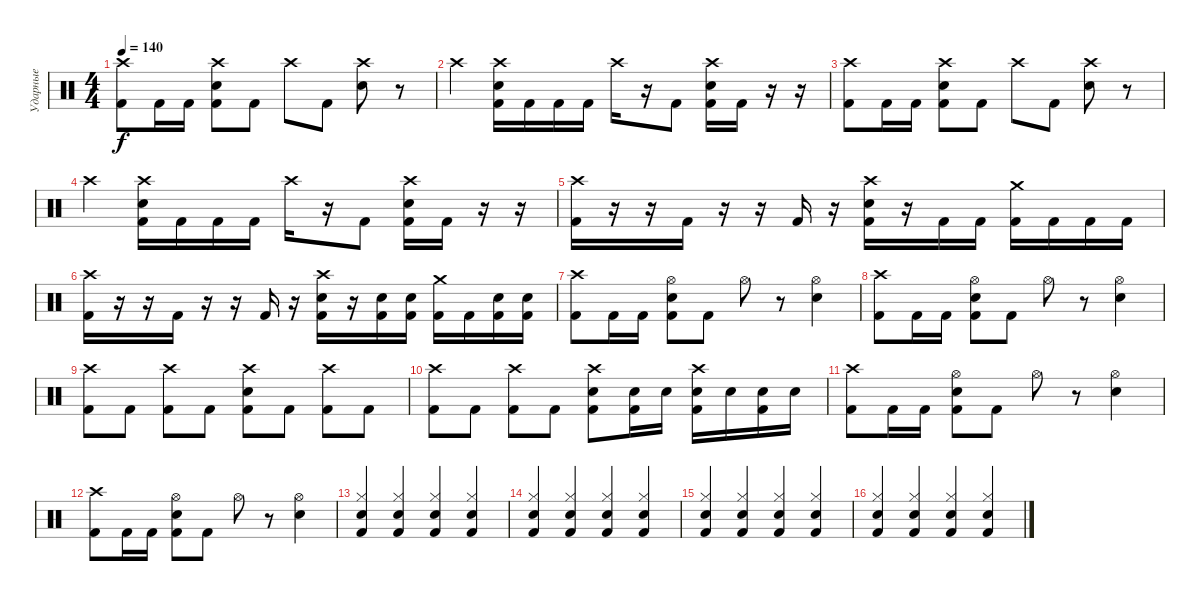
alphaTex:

\track ("Ударные" "Ударные") {instrument percussion}
\staff {score}
\articulation defaults
\ts (4 4)
\tempo 140
\clef neutral
\ks c
("Crash high (hit)" "Kick (hit) 2").8{dy f} "Kick (hit) 2".16 "Kick (hit) 2".16 ("Crash high (hit)" "Electric Snare (hit)" "Kick (hit) 2").8 "Kick (hit) 2".8 "Crash high (hit)".8 "Kick (hit) 2".8 ("Crash high (hit)" "Electric Snare (hit)").8 r.8 |
"Crash high (hit)".4 ("Crash high (hit)" "Electric Snare (hit)" "Kick (hit) 2").16 "Kick (hit) 2".16 "Kick (hit) 2".16 "Kick (hit) 2".16 "Crash high (hit)".16 r.16 "Kick (hit) 2".8 ("Crash high (hit)" "Electric Snare (hit)" "Kick (hit) 2").16 "Kick (hit) 2".16 r.16 r.16 |
("Crash high (hit)" "Kick (hit) 2").8 "Kick (hit) 2".16 "Kick (hit) 2".16 ("Crash high (hit)" "Electric Snare (hit)" "Kick (hit) 2").8 "Kick (hit) 2".8 "Crash high (hit)".8 "Kick (hit) 2".8 ("Crash high (hit)" "Electric Snare (hit)").8 r.8 |
"Crash high (hit)".4 ("Crash high (hit)" "Electric Snare (hit)" "Kick (hit) 2").16 "Kick (hit) 2".16 "Kick (hit) 2".16 "Kick (hit) 2".16 "Crash high (hit)".16 r.16 "Kick (hit) 2".8 ("Crash high (hit)" "Electric Snare (hit)" "Kick (hit) 2").16 "Kick (hit) 2".16 r.16 r.16 |
("Crash high (hit)" "Kick (hit) 2").16 r.16 r.16 "Kick (hit) 2".16 r.16 r.16 "Kick (hit) 2".16 r.16 ("Crash high (hit)" "Electric Snare (hit)" "Kick (hit) 2").16 r.16 "Kick (hit) 2".16 "Kick (hit) 2".16 ("Crash medium (hit)" "Kick (hit) 2").16 "Kick (hit) 2".16 "Kick (hit) 2".16 "Kick (hit) 2".16 |
("Crash high (hit)" "Kick (hit) 2").16 r.16 r.16 "Kick (hit) 2".16 r.16 r.16 "Kick (hit) 2".16 r.16 ("Crash high (hit)" "Electric Snare (hit)" "Kick (hit) 2").16 r.16 ("Electric Snare (hit)" "Kick (hit) 2").16 ("Electric Snare (hit)" "Kick (hit) 2").16 ("Crash medium (hit)" "Kick (hit) 2").16 "Kick (hit) 2".16 ("Electric Snare (hit)" "Kick (hit) 2").16 ("Electric Snare (hit)" "Kick (hit) 2").16 |
("Crash high (hit)" "Kick (hit) 2").8 "Kick (hit) 2".16 "Kick (hit) 2".16 ("Hi-Hat (open)" "Electric Snare (hit)" "Kick (hit) 2").8 "Kick (hit) 2".8 "Hi-Hat (open)".8 r.8 ("Hi-Hat (open)" "Electric Snare (hit)").4 |
("Crash high (hit)" "Kick (hit) 2").8 "Kick (hit) 2".16 "Kick (hit) 2".16 ("Hi-Hat (open)" "Electric Snare (hit)" "Kick (hit) 2").8 "Kick (hit) 2".8 "Hi-Hat (open)".8 r.8 ("Hi-Hat (open)" "Electric Snare (hit)").4 |
("Crash high (hit)" "Kick (hit) 2").8 "Kick (hit) 2".8 ("Crash high (hit)" "Kick (hit) 2").8 "Kick (hit) 2".8 ("Crash high (hit)" "Electric Snare (hit)" "Kick (hit) 2").8 "Kick (hit) 2".8 ("Crash high (hit)" "Kick (hit) 2").8 "Kick (hit) 2".8 |
("Crash high (hit)" "Kick (hit) 2").8 "Kick (hit) 2".8 ("Crash high (hit)" "Kick (hit) 2").8 "Kick (hit) 2".8 ("Crash high (hit)" "Electric Snare (hit)" "Kick (hit) 2").8 ("Electric Snare (hit)" "Kick (hit) 2").16 "Electric Snare (hit)".16 ("Crash high (hit)" "Electric Snare (hit)" "Kick (hit) 2").16 "Electric Snare (hit)".16 ("Electric Snare (hit)" "Kick (hit) 2").16 "Electric Snare (hit)".16 |
("Crash high (hit)" "Kick (hit) 2").8 "Kick (hit) 2".16 "Kick (hit) 2".16 ("Hi-Hat (open)" "Electric Snare (hit)" "Kick (hit) 2").8 "Kick (hit) 2".8 "Hi-Hat (open)".8 r.8 ("Hi-Hat (open)" "Electric Snare (hit)").4 |
("Crash high (hit)" "Kick (hit) 2").8 "Kick (hit) 2".16 "Kick (hit) 2".16 ("Hi-Hat (open)" "Electric Snare (hit)" "Kick (hit) 2").8 "Kick (hit) 2".8 "Hi-Hat (open)".8 r.8 ("Hi-Hat (open)" "Electric Snare (hit)").4 |
("Hi-Hat (closed)" "Hand Clap (hit)" "Kick (hit) 2").4 ("Hi-Hat (closed)" "Hand Clap (hit)" "Kick (hit) 2").4 ("Hi-Hat (closed)" "Hand Clap (hit)" "Kick (hit) 2").4 ("Hi-Hat (closed)" "Hand Clap (hit)" "Kick (hit) 2").4 |
("Hi-Hat (closed)" "Hand Clap (hit)" "Kick (hit) 2").4 ("Hi-Hat (closed)" "Hand Clap (hit)" "Kick (hit) 2").4 ("Hi-Hat (closed)" "Hand Clap (hit)" "Kick (hit) 2").4 ("Hi-Hat (closed)" "Hand Clap (hit)" "Kick (hit) 2").4 |
("Hi-Hat (closed)" "Hand Clap (hit)" "Kick (hit) 2").4 ("Hi-Hat (closed)" "Hand Clap (hit)" "Kick (hit) 2").4 ("Hi-Hat (closed)" "Hand Clap (hit)" "Kick (hit) 2").4 ("Hi-Hat (closed)" "Hand Clap (hit)" "Kick (hit) 2").4 |
("Hi-Hat (closed)" "Hand Clap (hit)" "Kick (hit) 2").4 ("Hi-Hat (closed)" "Hand Clap (hit)" "Kick (hit) 2").4 ("Hi-Hat (closed)" "Hand Clap (hit)" "Kick (hit) 2").4 ("Hi-Hat (closed)" "Hand Clap (hit)" "Kick (hit) 2").4
